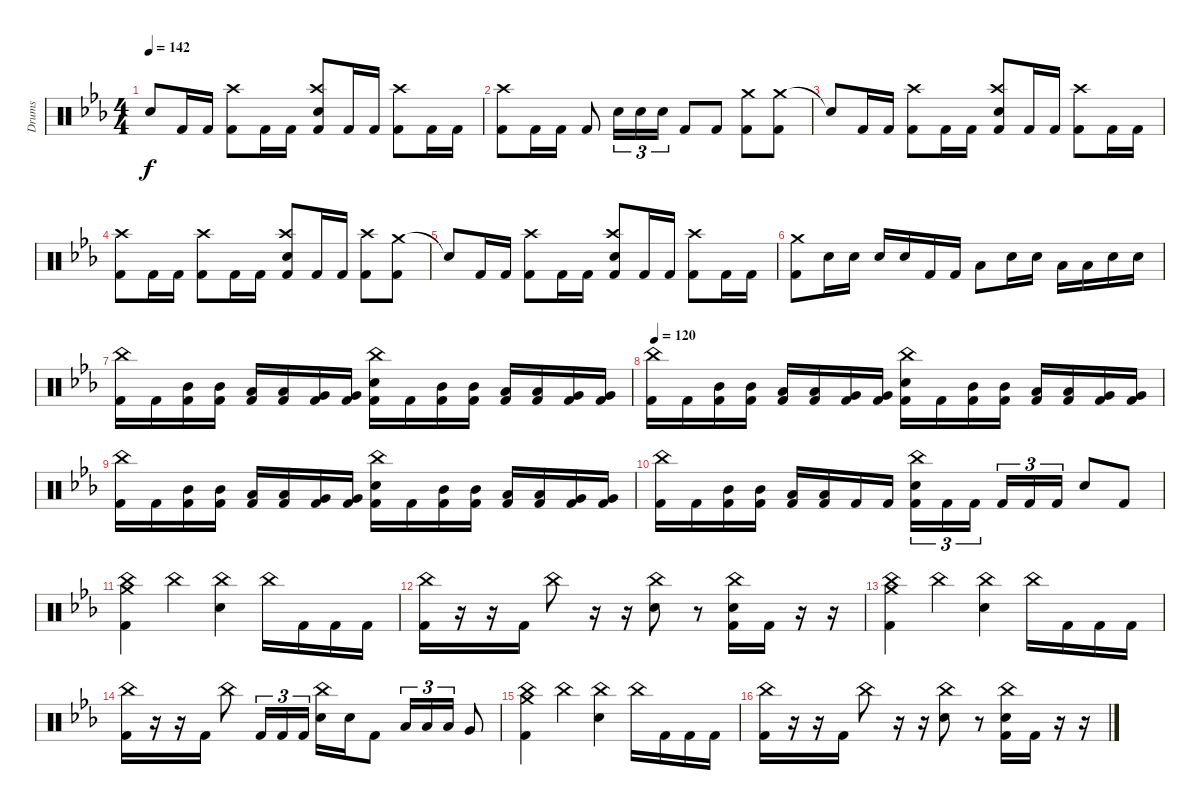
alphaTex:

\track ("Drums" "Drums") {instrument percussion}
\staff {score}
\articulation defaults
\ts (4 4)
\tempo 142
\clef neutral
\ks cminor "Snare (hit)"{t}.8{dy f} "Kick (hit) 2".16 "Kick (hit) 2".16
("Crash high (hit)" "Kick (hit) 2").8 "Kick (hit) 2".16 "Kick (hit) 2".16 ("Crash high (hit)" "Electric Snare (hit)" "Kick (hit) 2").8 "Kick (hit) 2".16 "Kick (hit) 2".16 ("Crash high (hit)" "Kick (hit) 2").8 "Kick (hit) 2".16 "Kick (hit) 2".16 |
("Crash high (hit)" "Kick (hit) 2").8 "Kick (hit) 2".16 "Kick (hit) 2".16 "Kick (hit) 2".8 "Electric Snare (hit)".16{tu (3 2)} "Electric Snare (hit)".16{tu (3 2)} "Electric Snare (hit)".16{tu (3 2)} "Kick (hit) 2".8 "Kick (hit) 2".8 ("Crash medium (hit)" "Kick (hit) 2").8 ("Crash medium (hit)" "Kick (hit) 2").8 |
"Snare (hit)"{t}.8 "Kick (hit) 2".16 "Kick (hit) 2".16 ("Crash high (hit)" "Kick (hit) 2").8 "Kick (hit) 2".16 "Kick (hit) 2".16 ("Crash high (hit)" "Electric Snare (hit)" "Kick (hit) 2").8 "Kick (hit) 2".16 "Kick (hit) 2".16 ("Crash high (hit)" "Kick (hit) 2").8 "Kick (hit) 2".16 "Kick (hit) 2".16 |
("Crash high (hit)" "Kick (hit) 2").8 "Kick (hit) 2".16 "Kick (hit) 2".16 ("Crash high (hit)" "Kick (hit) 2").8 "Kick (hit) 2".16 "Kick (hit) 2".16 ("Crash high (hit)" "Electric Snare (hit)" "Kick (hit) 2").8 "Kick (hit) 2".16 "Kick (hit) 2".16 ("Crash high (hit)" "Kick (hit) 2").8 ("Crash medium (hit)" "Kick (hit) 2").8 |
"Snare (hit)"{t}.8 "Kick (hit) 2".16 "Kick (hit) 2".16 ("Crash high (hit)" "Kick (hit) 2").8 "Kick (hit) 2".16 "Kick (hit) 2".16 ("Crash high (hit)" "Electric Snare (hit)" "Kick (hit) 2").8 "Kick (hit) 2".16 "Kick (hit) 2".16 ("Crash high (hit)" "Kick (hit) 2").8 "Kick (hit) 2".16 "Kick (hit) 2".16 |
("Crash medium (hit)" "Kick (hit) 2").8 "Electric Snare (hit)".16 "Electric Snare (hit)".16 "Electric Snare (hit)".16 "Electric Snare (hit)".16 "Kick (hit) 2".16 "Kick (hit) 2".16 "Low Tom (hit)".8 "Electric Snare (hit)".16 "Electric Snare (hit)".16 "Low Tom (hit)".16 "Low Tom (hit)".16 "Electric Snare (hit)".16 "Electric Snare (hit)".16 |
("China (hit)" "Kick (hit) 2").16 "Kick (hit) 2".16 ("Mid Tom (hit)" "Kick (hit) 2").16 ("Mid Tom (hit)" "Kick (hit) 2").16 ("Low Tom (hit)" "Kick (hit) 2").16 ("Low Tom (hit)" "Kick (hit) 2").16 ("Very Low Tom (hit)" "Kick (hit) 2").16 ("Very Low Tom (hit)" "Kick (hit) 2").16 ("China (hit)" "Electric Snare (hit)" "Kick (hit) 2").16 "Kick (hit) 2".16 ("Mid Tom (hit)" "Kick (hit) 2").16 ("Mid Tom (hit)" "Kick (hit) 2").16 ("Low Tom (hit)" "Kick (hit) 2").16 ("Low Tom (hit)" "Kick (hit) 2").16 ("Very Low Tom (hit)" "Kick (hit) 2").16 ("Very Low Tom (hit)" "Kick (hit) 2").16 |
\tempo 120
("China (hit)" "Kick (hit) 2").16 "Kick (hit) 2".16 ("Mid Tom (hit)" "Kick (hit) 2").16 ("Mid Tom (hit)" "Kick (hit) 2").16 ("Low Tom (hit)" "Kick (hit) 2").16 ("Low Tom (hit)" "Kick (hit) 2").16 ("Very Low Tom (hit)" "Kick (hit) 2").16 ("Very Low Tom (hit)" "Kick (hit) 2").16 ("China (hit)" "Electric Snare (hit)" "Kick (hit) 2").16 "Kick (hit) 2".16 ("Mid Tom (hit)" "Kick (hit) 2").16 ("Mid Tom (hit)" "Kick (hit) 2").16 ("Low Tom (hit)" "Kick (hit) 2").16 ("Low Tom (hit)" "Kick (hit) 2").16 ("Very Low Tom (hit)" "Kick (hit) 2").16 ("Very Low Tom (hit)" "Kick (hit) 2").16 |
("China (hit)" "Kick (hit) 2").16 "Kick (hit) 2".16 ("Mid Tom (hit)" "Kick (hit) 2").16 ("Mid Tom (hit)" "Kick (hit) 2").16 ("Low Tom (hit)" "Kick (hit) 2").16 ("Low Tom (hit)" "Kick (hit) 2").16 ("Very Low Tom (hit)" "Kick (hit) 2").16 ("Very Low Tom (hit)" "Kick (hit) 2").16 ("China (hit)" "Electric Snare (hit)" "Kick (hit) 2").16 "Kick (hit) 2".16 ("Mid Tom (hit)" "Kick (hit) 2").16 ("Mid Tom (hit)" "Kick (hit) 2").16 ("Low Tom (hit)" "Kick (hit) 2").16 ("Low Tom (hit)" "Kick (hit) 2").16 ("Very Low Tom (hit)" "Kick (hit) 2").16 ("Very Low Tom (hit)" "Kick (hit) 2").16 |
("China (hit)" "Kick (hit) 2").16 "Kick (hit) 2".16 ("Mid Tom (hit)" "Kick (hit) 2").16 ("Mid Tom (hit)" "Kick (hit) 2").16 ("Low Tom (hit)" "Kick (hit) 2").16 ("Low Tom (hit)" "Kick (hit) 2").16 "Kick (hit) 2".16 "Kick (hit) 2".16 ("China (hit)" "Electric Snare (hit)" "Kick (hit) 2").16{tu (3 2)} "Kick (hit) 2".16{tu (3 2)} "Kick (hit) 2".16{tu (3 2) beam splitsecondary} "Kick (hit) 2".16{tu (3 2)} "Kick (hit) 2".16{tu (3 2)} "Kick (hit) 2".16{tu (3 2)} "Electric Snare (hit)".8 "Kick (hit) 2".8 |
("Crash medium (hit)" "China (hit)" "Kick (hit) 2").4 "China (hit)".4 ("China (hit)" "Electric Snare (hit)").4 "China (hit)".16 "Kick (hit) 2".16 "Kick (hit) 2".16 "Kick (hit) 2".16 |
("China (hit)" "Kick (hit) 2").16 r.16 r.16 "Kick (hit) 2".16 "China (hit)".8 r.16 r.16 ("China (hit)" "Electric Snare (hit)").8 r.8 ("China (hit)" "Electric Snare (hit)" "Kick (hit) 2").16 "Kick (hit) 2".16 r.16 r.16 |
("Crash medium (hit)" "China (hit)" "Kick (hit) 2").4 "China (hit)".4 ("China (hit)" "Electric Snare (hit)").4 "China (hit)".16 "Kick (hit) 2".16 "Kick (hit) 2".16 "Kick (hit) 2".16 |
("China (hit)" "Kick (hit) 2").16 r.16 r.16 "Kick (hit) 2".16 "China (hit)".8 "Kick (hit) 2".16{tu (3 2)} "Kick (hit) 2".16{tu (3 2)} "Kick (hit) 2".16{tu (3 2)} ("China (hit)" "Electric Snare (hit)").16 "Electric Snare (hit)".16 "Kick (hit) 2".8 "Low Tom (hit)".16{tu (3 2)} "Low Tom (hit)".16{tu (3 2)} "Low Tom (hit)".16{tu (3 2)} "Very Low Tom (hit)".8 |
("Crash medium (hit)" "China (hit)" "Kick (hit) 2").4 "China (hit)".4 ("China (hit)" "Electric Snare (hit)").4 "China (hit)".16 "Kick (hit) 2".16 "Kick (hit) 2".16 "Kick (hit) 2".16 |
("China (hit)" "Kick (hit) 2").16 r.16 r.16 "Kick (hit) 2".16 "China (hit)".8 r.16 r.16 ("China (hit)" "Electric Snare (hit)").8 r.8 ("China (hit)" "Electric Snare (hit)" "Kick (hit) 2").16 "Kick (hit) 2".16 r.16 r.16
